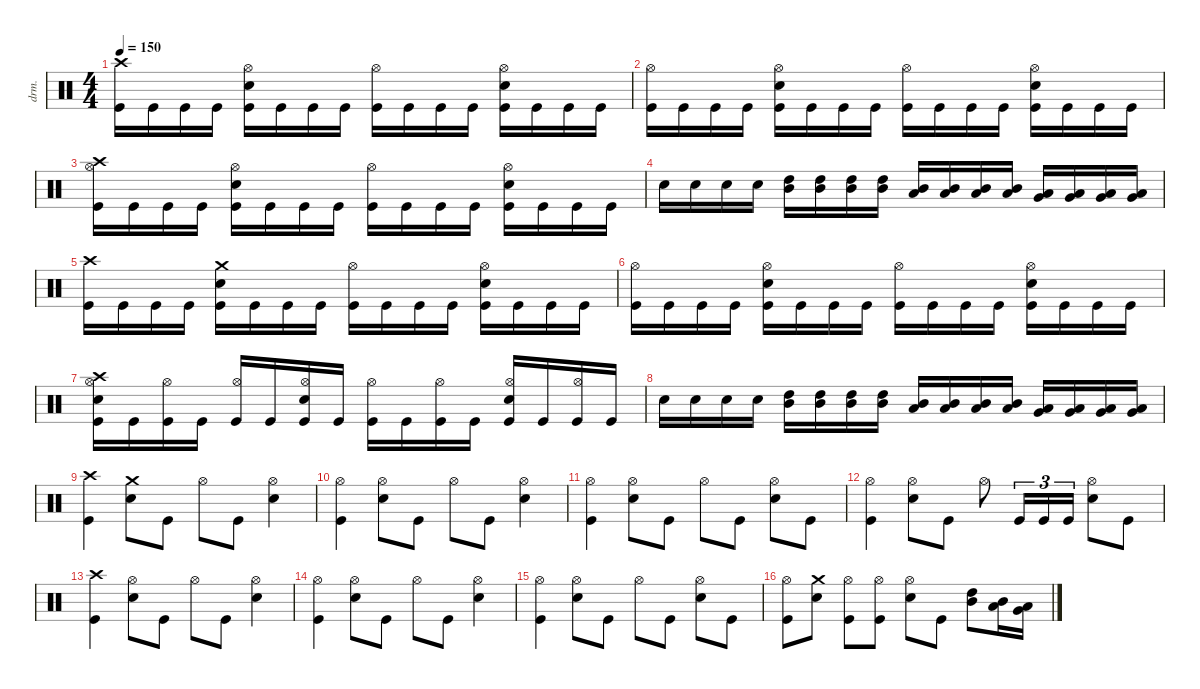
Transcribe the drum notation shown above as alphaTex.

\defaultSystemsLayout 4
\hideDynamics
\bracketExtendMode nobrackets
\otherSystemsTrackNameOrientation horizontal
\track ("Percussions" "drm.") {instrument percussion}
\staff {score}
\articulation defaults
\ts (4 4)
\tempo 150
\clef neutral
\ks c
("Kick (hit)" "Crash high (hit)").16{dy mf beam Down} "Kick (hit)".16{beam Down} "Kick (hit)".16{beam Down} "Kick (hit)".16{beam Down} ("Kick (hit)" "Snare (hit) 2" "Hi-Hat (open)").16{beam Down} "Kick (hit)".16{beam Down} "Kick (hit)".16{beam Down} "Kick (hit)".16{beam Down} ("Kick (hit)" "Hi-Hat (open)").16{beam Down} "Kick (hit)".16{beam Down} "Kick (hit)".16{beam Down} "Kick (hit)".16{beam Down} ("Kick (hit)" "Snare (hit) 2" "Hi-Hat (open)").16{beam Down} "Kick (hit)".16{beam Down} "Kick (hit)".16{beam Down} "Kick (hit)".16{beam Down} |
("Kick (hit)" "Hi-Hat (open)").16{beam Down} "Kick (hit)".16{beam Down} "Kick (hit)".16{beam Down} "Kick (hit)".16{beam Down} ("Kick (hit)" "Snare (hit) 2" "Hi-Hat (open)").16{beam Down} "Kick (hit)".16{beam Down} "Kick (hit)".16{beam Down} "Kick (hit)".16{beam Down} ("Kick (hit)" "Hi-Hat (open)").16{beam Down} "Kick (hit)".16{beam Down} "Kick (hit)".16{beam Down} "Kick (hit)".16{beam Down} ("Kick (hit)" "Snare (hit) 2" "Hi-Hat (open)").16{beam Down} "Kick (hit)".16{beam Down} "Kick (hit)".16{beam Down} "Kick (hit)".16{beam Down} |
("Kick (hit)" "Hi-Hat (open)" "Crash high (hit)").16{beam Down} "Kick (hit)".16{beam Down} "Kick (hit)".16{beam Down} "Kick (hit)".16{beam Down} ("Kick (hit)" "Snare (hit) 2" "Hi-Hat (open)").16{beam Down} "Kick (hit)".16{beam Down} "Kick (hit)".16{beam Down} "Kick (hit)".16{beam Down} ("Kick (hit)" "Hi-Hat (open)").16{beam Down} "Kick (hit)".16{beam Down} "Kick (hit)".16{beam Down} "Kick (hit)".16{beam Down} ("Kick (hit)" "Snare (hit) 2" "Hi-Hat (open)").16{beam Down} "Kick (hit)".16{beam Down} "Kick (hit)".16{beam Down} "Kick (hit)".16{beam Down} |
"Snare (hit) 2".16{dy f beam Down} "Snare (hit) 2".16{beam Down} "Snare (hit) 2".16{beam Down} "Snare (hit) 2".16{beam Down} ("High Tom (hit)" "Mid Tom (hit)").16{dy p beam Down} ("High Tom (hit)" "Mid Tom (hit)").16{beam Down} ("High Tom (hit)" "Mid Tom (hit)").16{beam Down} ("High Tom (hit)" "Mid Tom (hit)").16{beam Down} ("Mid Tom (hit)" "Low Tom (hit)").16{beam Up} ("Mid Tom (hit)" "Low Tom (hit)").16{beam Up} ("Mid Tom (hit)" "Low Tom (hit)").16{beam Up} ("Mid Tom (hit)" "Low Tom (hit)").16{beam Up} ("Low Tom (hit)" "Very Low Tom (hit)").16{beam Up} ("Low Tom (hit)" "Very Low Tom (hit)").16{beam Up} ("Low Tom (hit)" "Very Low Tom (hit)").16{beam Up} ("Low Tom (hit)" "Very Low Tom (hit)").16{beam Up} |
("Kick (hit)" "Crash high (hit)").16{dy mf beam Down} "Kick (hit)".16{beam Down} "Kick (hit)".16{beam Down} "Kick (hit)".16{beam Down} ("Kick (hit)" "Snare (hit) 2" "Crash medium (hit)").16{beam Down} "Kick (hit)".16{beam Down} "Kick (hit)".16{beam Down} "Kick (hit)".16{beam Down} ("Kick (hit)" "Hi-Hat (open)").16{beam Down} "Kick (hit)".16{beam Down} "Kick (hit)".16{beam Down} "Kick (hit)".16{beam Down} ("Kick (hit)" "Snare (hit) 2" "Hi-Hat (open)").16{beam Down} "Kick (hit)".16{beam Down} "Kick (hit)".16{beam Down} "Kick (hit)".16{beam Down} |
("Kick (hit)" "Hi-Hat (open)").16{beam Down} "Kick (hit)".16{beam Down} "Kick (hit)".16{beam Down} "Kick (hit)".16{beam Down} ("Kick (hit)" "Snare (hit) 2" "Hi-Hat (open)").16{beam Down} "Kick (hit)".16{beam Down} "Kick (hit)".16{beam Down} "Kick (hit)".16{beam Down} ("Kick (hit)" "Hi-Hat (open)").16{beam Down} "Kick (hit)".16{beam Down} "Kick (hit)".16{beam Down} "Kick (hit)".16{beam Down} ("Kick (hit)" "Snare (hit) 2" "Hi-Hat (open)").16{beam Down} "Kick (hit)".16{beam Down} "Kick (hit)".16{beam Down} "Kick (hit)".16{beam Down} |
("Kick (hit)" "Snare (hit) 2" "Hi-Hat (open)" "Crash high (hit)").16{beam Down} "Kick (hit)".16{beam Down} ("Kick (hit)" "Hi-Hat (open)").16{beam Down} "Kick (hit)".16{beam Down} ("Kick (hit)" "Hi-Hat (open)").16{beam Up} "Kick (hit)".16{beam Up} ("Kick (hit)" "Snare (hit) 2" "Hi-Hat (open)").16{beam Up} "Kick (hit)".16{beam Up} ("Kick (hit)" "Hi-Hat (open)").16{beam Down} "Kick (hit)".16{beam Down} ("Kick (hit)" "Hi-Hat (open)").16{beam Down} "Kick (hit)".16{beam Down} ("Kick (hit)" "Snare (hit) 2" "Hi-Hat (open)").16{beam Up} "Kick (hit)".16{beam Up} ("Kick (hit)" "Hi-Hat (open)").16{beam Up} "Kick (hit)".16{beam Up} |
"Snare (hit) 2".16{dy f beam Down} "Snare (hit) 2".16{beam Down} "Snare (hit) 2".16{beam Down} "Snare (hit) 2".16{beam Down} ("High Tom (hit)" "Mid Tom (hit)").16{dy p beam Down} ("High Tom (hit)" "Mid Tom (hit)").16{beam Down} ("High Tom (hit)" "Mid Tom (hit)").16{beam Down} ("High Tom (hit)" "Mid Tom (hit)").16{beam Down} ("Mid Tom (hit)" "Low Tom (hit)").16{beam Up} ("Mid Tom (hit)" "Low Tom (hit)").16{beam Up} ("Mid Tom (hit)" "Low Tom (hit)").16{beam Up} ("Mid Tom (hit)" "Low Tom (hit)").16{beam Up} ("Low Tom (hit)" "Very Low Tom (hit)").16{beam Up} ("Low Tom (hit)" "Very Low Tom (hit)").16{beam Up} ("Low Tom (hit)" "Very Low Tom (hit)").16{beam Up} ("Low Tom (hit)" "Very Low Tom (hit)").16{beam Up} |
("Kick (hit)" "Crash high (hit)").4{dy f beam Down} ("Snare (hit) 2" "Crash medium (hit)").8{beam Down} "Kick (hit)".8{beam Down} "Hi-Hat (open)".8{dy mf beam Down} "Kick (hit)".8{dy f beam Down} ("Snare (hit) 2" "Hi-Hat (open)").4{beam Down} |
("Kick (hit)" "Hi-Hat (open)").4{beam Down} ("Snare (hit) 2" "Hi-Hat (open)").8{beam Down} "Kick (hit)".8{beam Down} "Hi-Hat (open)".8{dy mf beam Down} "Kick (hit)".8{dy f beam Down} ("Snare (hit) 2" "Hi-Hat (open)").4{beam Down} |
("Kick (hit)" "Hi-Hat (open)").4{beam Down} ("Snare (hit) 2" "Hi-Hat (open)").8{beam Down} "Kick (hit)".8{beam Down} "Hi-Hat (open)".8{dy mf beam Down} "Kick (hit)".8{dy f beam Down} ("Snare (hit) 2" "Hi-Hat (open)").8{beam Down} "Kick (hit)".8{beam Down} |
("Kick (hit)" "Hi-Hat (open)").4{beam Down} ("Snare (hit) 2" "Hi-Hat (open)").8{beam Down} "Kick (hit)".8{beam Down} "Hi-Hat (open)".8{dy mf beam Down} "Kick (hit)".16{tu (3 2) beam Up} "Kick (hit)".16{tu (3 2) beam Up} "Kick (hit)".16{tu (3 2) beam Up} ("Snare (hit) 2" "Hi-Hat (open)").8{dy f beam Down} "Kick (hit)".8{beam Down} |
("Kick (hit)" "Crash high (hit)").4{beam Down} ("Snare (hit) 2" "Hi-Hat (open)").8{beam Down} "Kick (hit)".8{beam Down} "Hi-Hat (open)".8{dy mf beam Down} "Kick (hit)".8{dy f beam Down} ("Snare (hit) 2" "Hi-Hat (open)").4{beam Down} |
("Kick (hit)" "Hi-Hat (open)").4{beam Down} ("Snare (hit) 2" "Hi-Hat (open)").8{beam Down} "Kick (hit)".8{beam Down} "Hi-Hat (open)".8{dy mf beam Down} "Kick (hit)".8{dy f beam Down} ("Snare (hit) 2" "Hi-Hat (open)").4{beam Down} |
("Kick (hit)" "Hi-Hat (open)").4{beam Down} ("Snare (hit) 2" "Hi-Hat (open)").8{beam Down} "Kick (hit)".8{beam Down} "Hi-Hat (open)".8{dy mf beam Down} "Kick (hit)".8{dy f beam Down} ("Snare (hit) 2" "Hi-Hat (open)").8{beam Down} "Kick (hit)".8{beam Down} |
("Kick (hit)" "Hi-Hat (open)").8{beam Down} ("Snare (hit) 2" "Crash medium (hit)").8{beam Down} ("Kick (hit)" "Hi-Hat (open)").8{beam Down} ("Kick (hit)" "Hi-Hat (open)").8{beam Down} ("Snare (hit) 2" "Hi-Hat (open)").8{beam Down} "Kick (hit)".8{beam Down} ("Mid Tom (hit)" "High Tom (hit)").8{dy mp beam Down} ("Low Tom (hit)" "Mid Tom (hit)").16{beam Down} ("Very Low Tom (hit)" "Low Tom (hit)").16{beam Down}
